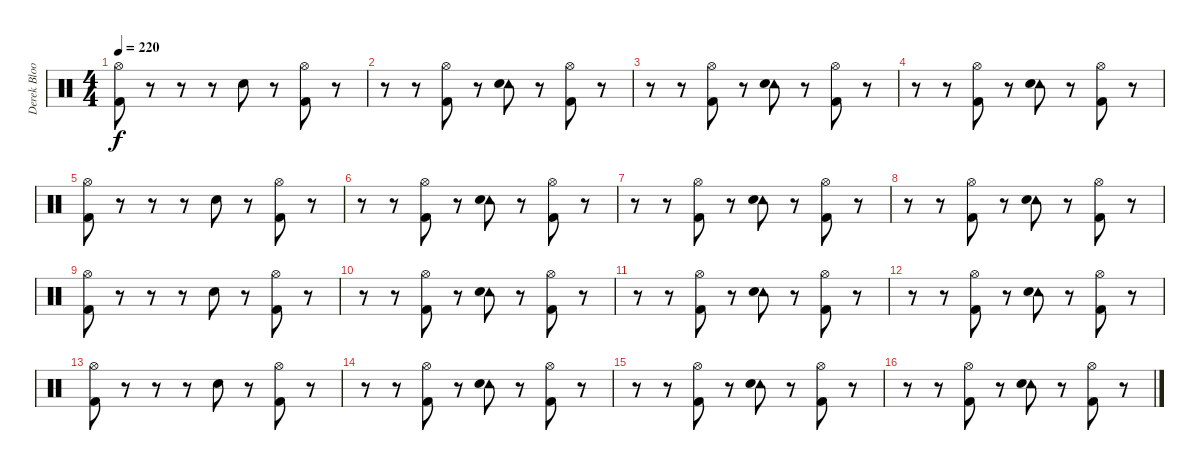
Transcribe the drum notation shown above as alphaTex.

\track ("Derek Bloom - Drums" "Derek Bloo") {instrument percussion}
\staff {score}
\articulation defaults
\ts (4 4)
\tempo 220
\clef neutral
\ks c
("Hi-Hat (open)" "Kick (hit) 2").8{dy f} r.8 r.8 r.8 "Electric Snare (hit)".8 r.8 ("Hi-Hat (open)" "Kick (hit) 2").8 r.8 |
r.8 r.8 ("Hi-Hat (open)" "Kick (hit) 2").8 r.8 ("Tambourine (hit)" "Electric Snare (hit)").8 r.8 ("Hi-Hat (open)" "Kick (hit) 2").8 r.8 |
r.8 r.8 ("Hi-Hat (open)" "Kick (hit) 2").8 r.8 ("Tambourine (hit)" "Electric Snare (hit)").8 r.8 ("Hi-Hat (open)" "Kick (hit) 2").8 r.8 |
r.8 r.8 ("Hi-Hat (open)" "Kick (hit) 2").8 r.8 ("Tambourine (hit)" "Electric Snare (hit)").8 r.8 ("Hi-Hat (open)" "Kick (hit) 2").8 r.8 |
("Hi-Hat (open)" "Kick (hit) 2").8 r.8 r.8 r.8 "Electric Snare (hit)".8 r.8 ("Hi-Hat (open)" "Kick (hit) 2").8 r.8 |
r.8 r.8 ("Hi-Hat (open)" "Kick (hit) 2").8 r.8 ("Tambourine (hit)" "Electric Snare (hit)").8 r.8 ("Hi-Hat (open)" "Kick (hit) 2").8 r.8 |
r.8 r.8 ("Hi-Hat (open)" "Kick (hit) 2").8 r.8 ("Tambourine (hit)" "Electric Snare (hit)").8 r.8 ("Hi-Hat (open)" "Kick (hit) 2").8 r.8 |
r.8 r.8 ("Hi-Hat (open)" "Kick (hit) 2").8 r.8 ("Tambourine (hit)" "Electric Snare (hit)").8 r.8 ("Hi-Hat (open)" "Kick (hit) 2").8 r.8 |
("Hi-Hat (open)" "Kick (hit) 2").8 r.8 r.8 r.8 "Electric Snare (hit)".8 r.8 ("Hi-Hat (open)" "Kick (hit) 2").8 r.8 |
r.8 r.8 ("Hi-Hat (open)" "Kick (hit) 2").8 r.8 ("Tambourine (hit)" "Electric Snare (hit)").8 r.8 ("Hi-Hat (open)" "Kick (hit) 2").8 r.8 |
r.8 r.8 ("Hi-Hat (open)" "Kick (hit) 2").8 r.8 ("Tambourine (hit)" "Electric Snare (hit)").8 r.8 ("Hi-Hat (open)" "Kick (hit) 2").8 r.8 |
r.8 r.8 ("Hi-Hat (open)" "Kick (hit) 2").8 r.8 ("Tambourine (hit)" "Electric Snare (hit)").8 r.8 ("Hi-Hat (open)" "Kick (hit) 2").8 r.8 |
("Hi-Hat (open)" "Kick (hit) 2").8 r.8 r.8 r.8 "Electric Snare (hit)".8 r.8 ("Hi-Hat (open)" "Kick (hit) 2").8 r.8 |
r.8 r.8 ("Hi-Hat (open)" "Kick (hit) 2").8 r.8 ("Tambourine (hit)" "Electric Snare (hit)").8 r.8 ("Hi-Hat (open)" "Kick (hit) 2").8 r.8 |
r.8 r.8 ("Hi-Hat (open)" "Kick (hit) 2").8 r.8 ("Tambourine (hit)" "Electric Snare (hit)").8 r.8 ("Hi-Hat (open)" "Kick (hit) 2").8 r.8 |
r.8 r.8 ("Hi-Hat (open)" "Kick (hit) 2").8 r.8 ("Tambourine (hit)" "Electric Snare (hit)").8 r.8 ("Hi-Hat (open)" "Kick (hit) 2").8 r.8
